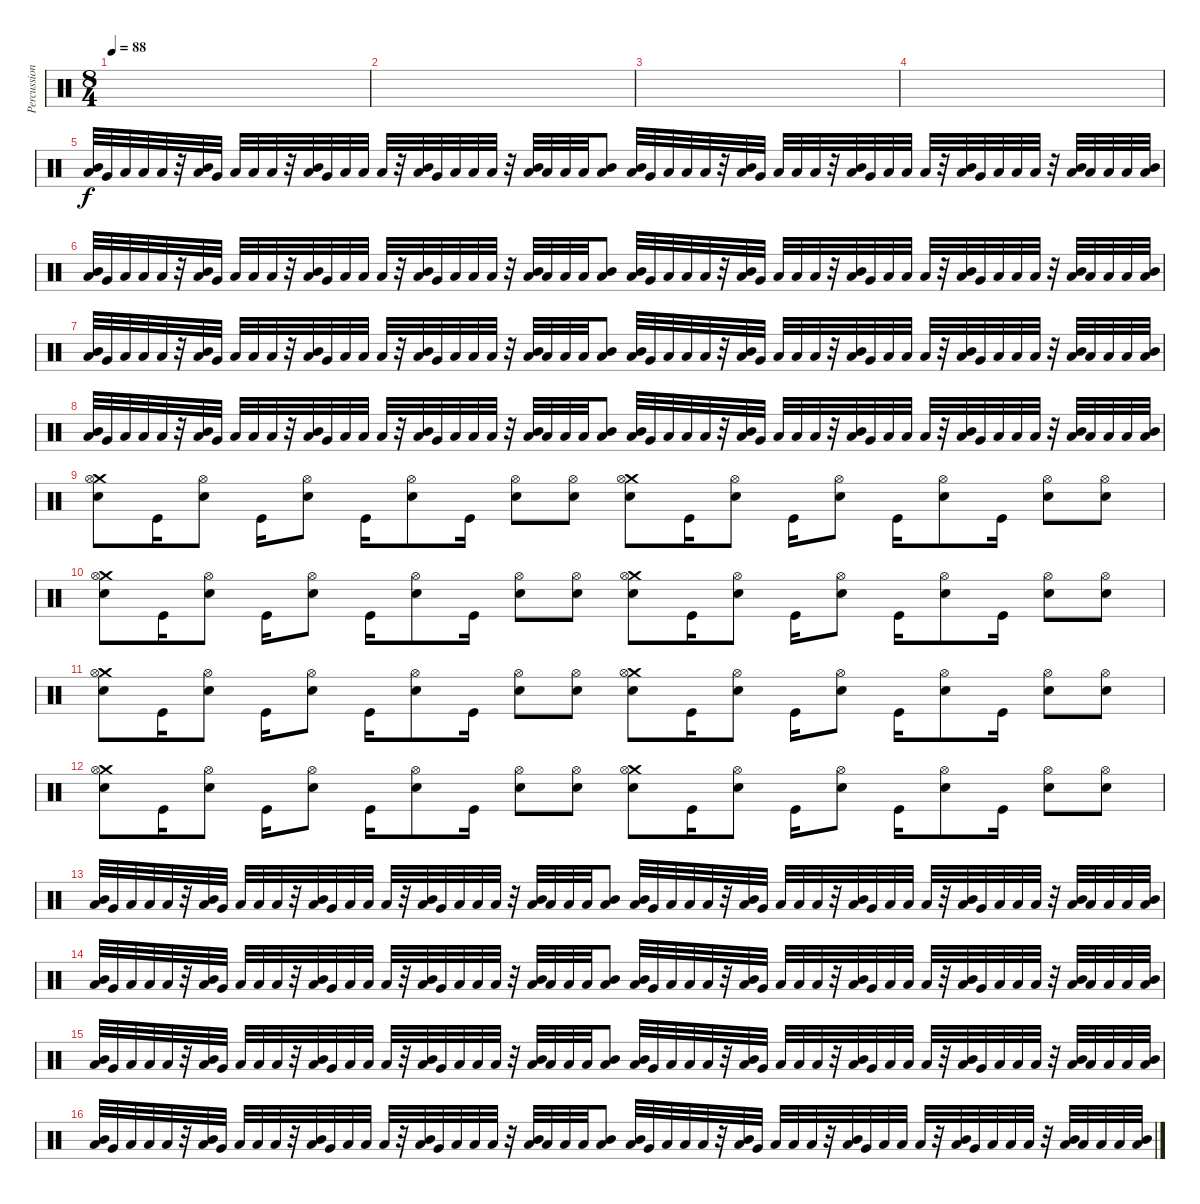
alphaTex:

\track ("Percussion" "Percussion") {instrument percussion}
\staff {score}
\articulation defaults
\ts (8 4)
\tempo 88
\clef neutral
\ks c
|
|
|
|
("Mid Tom (hit)" "Low Tom (hit)").32 "Very Low Tom (hit)".32 "Low Tom (hit)".32 "Low Tom (hit)".32 "Low Tom (hit)".32 r.32 ("Mid Tom (hit)" "Low Tom (hit)").32 "Very Low Tom (hit)".32 "Low Tom (hit)".32 "Low Tom (hit)".32 "Low Tom (hit)".32 r.32 ("Mid Tom (hit)" "Low Tom (hit)").32 "Very Low Tom (hit)".32 "Low Tom (hit)".32 "Low Tom (hit)".32 "Low Tom (hit)".32 r.32 ("Mid Tom (hit)" "Low Tom (hit)").32 "Very Low Tom (hit)".32 "Low Tom (hit)".32 "Low Tom (hit)".32 "Low Tom (hit)".32 r.32 ("Mid Tom (hit)" "Low Tom (hit)").32 "Low Tom (hit)".32 "Low Tom (hit)".32 "Low Tom (hit)".32 ("Mid Tom (hit)" "Low Tom (hit)").8 ("Mid Tom (hit)" "Low Tom (hit)").32 "Very Low Tom (hit)".32 "Low Tom (hit)".32 "Low Tom (hit)".32 "Low Tom (hit)".32 r.32 ("Mid Tom (hit)" "Low Tom (hit)").32 "Very Low Tom (hit)".32 "Low Tom (hit)".32 "Low Tom (hit)".32 "Low Tom (hit)".32 r.32 ("Mid Tom (hit)" "Low Tom (hit)").32 "Very Low Tom (hit)".32 "Low Tom (hit)".32 "Low Tom (hit)".32 "Low Tom (hit)".32 r.32 ("Mid Tom (hit)" "Low Tom (hit)").32 "Very Low Tom (hit)".32 "Low Tom (hit)".32 "Low Tom (hit)".32 "Low Tom (hit)".32 r.32 ("Mid Tom (hit)" "Low Tom (hit)").32 "Low Tom (hit)".32 "Low Tom (hit)".32 "Low Tom (hit)".32 ("Mid Tom (hit)" "Low Tom (hit)").32 |
("Mid Tom (hit)" "Low Tom (hit)").32 "Very Low Tom (hit)".32 "Low Tom (hit)".32 "Low Tom (hit)".32 "Low Tom (hit)".32 r.32 ("Mid Tom (hit)" "Low Tom (hit)").32 "Very Low Tom (hit)".32 "Low Tom (hit)".32 "Low Tom (hit)".32 "Low Tom (hit)".32 r.32 ("Mid Tom (hit)" "Low Tom (hit)").32 "Very Low Tom (hit)".32 "Low Tom (hit)".32 "Low Tom (hit)".32 "Low Tom (hit)".32 r.32 ("Mid Tom (hit)" "Low Tom (hit)").32 "Very Low Tom (hit)".32 "Low Tom (hit)".32 "Low Tom (hit)".32 "Low Tom (hit)".32 r.32 ("Mid Tom (hit)" "Low Tom (hit)").32 "Low Tom (hit)".32 "Low Tom (hit)".32 "Low Tom (hit)".32 ("Mid Tom (hit)" "Low Tom (hit)").8 ("Mid Tom (hit)" "Low Tom (hit)").32 "Very Low Tom (hit)".32 "Low Tom (hit)".32 "Low Tom (hit)".32 "Low Tom (hit)".32 r.32 ("Mid Tom (hit)" "Low Tom (hit)").32 "Very Low Tom (hit)".32 "Low Tom (hit)".32 "Low Tom (hit)".32 "Low Tom (hit)".32 r.32 ("Mid Tom (hit)" "Low Tom (hit)").32 "Very Low Tom (hit)".32 "Low Tom (hit)".32 "Low Tom (hit)".32 "Low Tom (hit)".32 r.32 ("Mid Tom (hit)" "Low Tom (hit)").32 "Very Low Tom (hit)".32 "Low Tom (hit)".32 "Low Tom (hit)".32 "Low Tom (hit)".32 r.32 ("Mid Tom (hit)" "Low Tom (hit)").32 "Low Tom (hit)".32 "Low Tom (hit)".32 "Low Tom (hit)".32 ("Mid Tom (hit)" "Low Tom (hit)").32 |
("Mid Tom (hit)" "Low Tom (hit)").32 "Very Low Tom (hit)".32 "Low Tom (hit)".32 "Low Tom (hit)".32 "Low Tom (hit)".32 r.32 ("Mid Tom (hit)" "Low Tom (hit)").32 "Very Low Tom (hit)".32 "Low Tom (hit)".32 "Low Tom (hit)".32 "Low Tom (hit)".32 r.32 ("Mid Tom (hit)" "Low Tom (hit)").32 "Very Low Tom (hit)".32 "Low Tom (hit)".32 "Low Tom (hit)".32 "Low Tom (hit)".32 r.32 ("Mid Tom (hit)" "Low Tom (hit)").32 "Very Low Tom (hit)".32 "Low Tom (hit)".32 "Low Tom (hit)".32 "Low Tom (hit)".32 r.32 ("Mid Tom (hit)" "Low Tom (hit)").32 "Low Tom (hit)".32 "Low Tom (hit)".32 "Low Tom (hit)".32 ("Mid Tom (hit)" "Low Tom (hit)").8 ("Mid Tom (hit)" "Low Tom (hit)").32 "Very Low Tom (hit)".32 "Low Tom (hit)".32 "Low Tom (hit)".32 "Low Tom (hit)".32 r.32 ("Mid Tom (hit)" "Low Tom (hit)").32 "Very Low Tom (hit)".32 "Low Tom (hit)".32 "Low Tom (hit)".32 "Low Tom (hit)".32 r.32 ("Mid Tom (hit)" "Low Tom (hit)").32 "Very Low Tom (hit)".32 "Low Tom (hit)".32 "Low Tom (hit)".32 "Low Tom (hit)".32 r.32 ("Mid Tom (hit)" "Low Tom (hit)").32 "Very Low Tom (hit)".32 "Low Tom (hit)".32 "Low Tom (hit)".32 "Low Tom (hit)".32 r.32 ("Mid Tom (hit)" "Low Tom (hit)").32 "Low Tom (hit)".32 "Low Tom (hit)".32 "Low Tom (hit)".32 ("Mid Tom (hit)" "Low Tom (hit)").32 |
("Mid Tom (hit)" "Low Tom (hit)").32 "Very Low Tom (hit)".32 "Low Tom (hit)".32 "Low Tom (hit)".32 "Low Tom (hit)".32 r.32 ("Mid Tom (hit)" "Low Tom (hit)").32 "Very Low Tom (hit)".32 "Low Tom (hit)".32 "Low Tom (hit)".32 "Low Tom (hit)".32 r.32 ("Mid Tom (hit)" "Low Tom (hit)").32 "Very Low Tom (hit)".32 "Low Tom (hit)".32 "Low Tom (hit)".32 "Low Tom (hit)".32 r.32 ("Mid Tom (hit)" "Low Tom (hit)").32 "Very Low Tom (hit)".32 "Low Tom (hit)".32 "Low Tom (hit)".32 "Low Tom (hit)".32 r.32 ("Mid Tom (hit)" "Low Tom (hit)").32 "Low Tom (hit)".32 "Low Tom (hit)".32 "Low Tom (hit)".32 ("Mid Tom (hit)" "Low Tom (hit)").8 ("Mid Tom (hit)" "Low Tom (hit)").32 "Very Low Tom (hit)".32 "Low Tom (hit)".32 "Low Tom (hit)".32 "Low Tom (hit)".32 r.32 ("Mid Tom (hit)" "Low Tom (hit)").32 "Very Low Tom (hit)".32 "Low Tom (hit)".32 "Low Tom (hit)".32 "Low Tom (hit)".32 r.32 ("Mid Tom (hit)" "Low Tom (hit)").32 "Very Low Tom (hit)".32 "Low Tom (hit)".32 "Low Tom (hit)".32 "Low Tom (hit)".32 r.32 ("Mid Tom (hit)" "Low Tom (hit)").32 "Very Low Tom (hit)".32 "Low Tom (hit)".32 "Low Tom (hit)".32 "Low Tom (hit)".32 r.32 ("Mid Tom (hit)" "Low Tom (hit)").32 "Low Tom (hit)".32 "Low Tom (hit)".32 "Low Tom (hit)".32 ("Mid Tom (hit)" "Low Tom (hit)").32 |
("Crash medium (hit)" "Hi-Hat (open)" "Snare (hit) 2").8 "Kick (hit)".16 ("Hi-Hat (open)" "Snare (hit) 2").8 "Kick (hit)".16 ("Hi-Hat (open)" "Snare (hit) 2").8 "Kick (hit)".16 ("Hi-Hat (open)" "Snare (hit) 2").8 "Kick (hit)".16 ("Hi-Hat (open)" "Snare (hit) 2").8 ("Hi-Hat (open)" "Snare (hit) 2").8 ("Crash medium (hit)" "Hi-Hat (open)" "Snare (hit) 2").8 "Kick (hit)".16 ("Hi-Hat (open)" "Snare (hit) 2").8 "Kick (hit)".16 ("Hi-Hat (open)" "Snare (hit) 2").8 "Kick (hit)".16 ("Hi-Hat (open)" "Snare (hit) 2").8 "Kick (hit)".16 ("Hi-Hat (open)" "Snare (hit) 2").8 ("Hi-Hat (open)" "Snare (hit) 2").8 |
("Crash medium (hit)" "Hi-Hat (open)" "Snare (hit) 2").8 "Kick (hit)".16 ("Hi-Hat (open)" "Snare (hit) 2").8 "Kick (hit)".16 ("Hi-Hat (open)" "Snare (hit) 2").8 "Kick (hit)".16 ("Hi-Hat (open)" "Snare (hit) 2").8 "Kick (hit)".16 ("Hi-Hat (open)" "Snare (hit) 2").8 ("Hi-Hat (open)" "Snare (hit) 2").8 ("Crash medium (hit)" "Hi-Hat (open)" "Snare (hit) 2").8 "Kick (hit)".16 ("Hi-Hat (open)" "Snare (hit) 2").8 "Kick (hit)".16 ("Hi-Hat (open)" "Snare (hit) 2").8 "Kick (hit)".16 ("Hi-Hat (open)" "Snare (hit) 2").8 "Kick (hit)".16 ("Hi-Hat (open)" "Snare (hit) 2").8 ("Hi-Hat (open)" "Snare (hit) 2").8 |
("Crash medium (hit)" "Hi-Hat (open)" "Snare (hit) 2").8 "Kick (hit)".16 ("Hi-Hat (open)" "Snare (hit) 2").8 "Kick (hit)".16 ("Hi-Hat (open)" "Snare (hit) 2").8 "Kick (hit)".16 ("Hi-Hat (open)" "Snare (hit) 2").8 "Kick (hit)".16 ("Hi-Hat (open)" "Snare (hit) 2").8 ("Hi-Hat (open)" "Snare (hit) 2").8 ("Crash medium (hit)" "Hi-Hat (open)" "Snare (hit) 2").8 "Kick (hit)".16 ("Hi-Hat (open)" "Snare (hit) 2").8 "Kick (hit)".16 ("Hi-Hat (open)" "Snare (hit) 2").8 "Kick (hit)".16 ("Hi-Hat (open)" "Snare (hit) 2").8 "Kick (hit)".16 ("Hi-Hat (open)" "Snare (hit) 2").8 ("Hi-Hat (open)" "Snare (hit) 2").8 |
("Crash medium (hit)" "Hi-Hat (open)" "Snare (hit) 2").8 "Kick (hit)".16 ("Hi-Hat (open)" "Snare (hit) 2").8 "Kick (hit)".16 ("Hi-Hat (open)" "Snare (hit) 2").8 "Kick (hit)".16 ("Hi-Hat (open)" "Snare (hit) 2").8 "Kick (hit)".16 ("Hi-Hat (open)" "Snare (hit) 2").8 ("Hi-Hat (open)" "Snare (hit) 2").8 ("Crash medium (hit)" "Hi-Hat (open)" "Snare (hit) 2").8 "Kick (hit)".16 ("Hi-Hat (open)" "Snare (hit) 2").8 "Kick (hit)".16 ("Hi-Hat (open)" "Snare (hit) 2").8 "Kick (hit)".16 ("Hi-Hat (open)" "Snare (hit) 2").8 "Kick (hit)".16 ("Hi-Hat (open)" "Snare (hit) 2").8 ("Hi-Hat (open)" "Snare (hit) 2").8 |
("Mid Tom (hit)" "Low Tom (hit)").32 "Very Low Tom (hit)".32 "Low Tom (hit)".32 "Low Tom (hit)".32 "Low Tom (hit)".32 r.32 ("Mid Tom (hit)" "Low Tom (hit)").32 "Very Low Tom (hit)".32 "Low Tom (hit)".32 "Low Tom (hit)".32 "Low Tom (hit)".32 r.32 ("Mid Tom (hit)" "Low Tom (hit)").32 "Very Low Tom (hit)".32 "Low Tom (hit)".32 "Low Tom (hit)".32 "Low Tom (hit)".32 r.32 ("Mid Tom (hit)" "Low Tom (hit)").32 "Very Low Tom (hit)".32 "Low Tom (hit)".32 "Low Tom (hit)".32 "Low Tom (hit)".32 r.32 ("Mid Tom (hit)" "Low Tom (hit)").32 "Low Tom (hit)".32 "Low Tom (hit)".32 "Low Tom (hit)".32 ("Mid Tom (hit)" "Low Tom (hit)").8 ("Mid Tom (hit)" "Low Tom (hit)").32 "Very Low Tom (hit)".32 "Low Tom (hit)".32 "Low Tom (hit)".32 "Low Tom (hit)".32 r.32 ("Mid Tom (hit)" "Low Tom (hit)").32 "Very Low Tom (hit)".32 "Low Tom (hit)".32 "Low Tom (hit)".32 "Low Tom (hit)".32 r.32 ("Mid Tom (hit)" "Low Tom (hit)").32 "Very Low Tom (hit)".32 "Low Tom (hit)".32 "Low Tom (hit)".32 "Low Tom (hit)".32 r.32 ("Mid Tom (hit)" "Low Tom (hit)").32 "Very Low Tom (hit)".32 "Low Tom (hit)".32 "Low Tom (hit)".32 "Low Tom (hit)".32 r.32 ("Mid Tom (hit)" "Low Tom (hit)").32 "Low Tom (hit)".32 "Low Tom (hit)".32 "Low Tom (hit)".32 ("Mid Tom (hit)" "Low Tom (hit)").32 |
("Mid Tom (hit)" "Low Tom (hit)").32 "Very Low Tom (hit)".32 "Low Tom (hit)".32 "Low Tom (hit)".32 "Low Tom (hit)".32 r.32 ("Mid Tom (hit)" "Low Tom (hit)").32 "Very Low Tom (hit)".32 "Low Tom (hit)".32 "Low Tom (hit)".32 "Low Tom (hit)".32 r.32 ("Mid Tom (hit)" "Low Tom (hit)").32 "Very Low Tom (hit)".32 "Low Tom (hit)".32 "Low Tom (hit)".32 "Low Tom (hit)".32 r.32 ("Mid Tom (hit)" "Low Tom (hit)").32 "Very Low Tom (hit)".32 "Low Tom (hit)".32 "Low Tom (hit)".32 "Low Tom (hit)".32 r.32 ("Mid Tom (hit)" "Low Tom (hit)").32 "Low Tom (hit)".32 "Low Tom (hit)".32 "Low Tom (hit)".32 ("Mid Tom (hit)" "Low Tom (hit)").8 ("Mid Tom (hit)" "Low Tom (hit)").32 "Very Low Tom (hit)".32 "Low Tom (hit)".32 "Low Tom (hit)".32 "Low Tom (hit)".32 r.32 ("Mid Tom (hit)" "Low Tom (hit)").32 "Very Low Tom (hit)".32 "Low Tom (hit)".32 "Low Tom (hit)".32 "Low Tom (hit)".32 r.32 ("Mid Tom (hit)" "Low Tom (hit)").32 "Very Low Tom (hit)".32 "Low Tom (hit)".32 "Low Tom (hit)".32 "Low Tom (hit)".32 r.32 ("Mid Tom (hit)" "Low Tom (hit)").32 "Very Low Tom (hit)".32 "Low Tom (hit)".32 "Low Tom (hit)".32 "Low Tom (hit)".32 r.32 ("Mid Tom (hit)" "Low Tom (hit)").32 "Low Tom (hit)".32 "Low Tom (hit)".32 "Low Tom (hit)".32 ("Mid Tom (hit)" "Low Tom (hit)").32 |
("Mid Tom (hit)" "Low Tom (hit)").32 "Very Low Tom (hit)".32 "Low Tom (hit)".32 "Low Tom (hit)".32 "Low Tom (hit)".32 r.32 ("Mid Tom (hit)" "Low Tom (hit)").32 "Very Low Tom (hit)".32 "Low Tom (hit)".32 "Low Tom (hit)".32 "Low Tom (hit)".32 r.32 ("Mid Tom (hit)" "Low Tom (hit)").32 "Very Low Tom (hit)".32 "Low Tom (hit)".32 "Low Tom (hit)".32 "Low Tom (hit)".32 r.32 ("Mid Tom (hit)" "Low Tom (hit)").32 "Very Low Tom (hit)".32 "Low Tom (hit)".32 "Low Tom (hit)".32 "Low Tom (hit)".32 r.32 ("Mid Tom (hit)" "Low Tom (hit)").32 "Low Tom (hit)".32 "Low Tom (hit)".32 "Low Tom (hit)".32 ("Mid Tom (hit)" "Low Tom (hit)").8 ("Mid Tom (hit)" "Low Tom (hit)").32 "Very Low Tom (hit)".32 "Low Tom (hit)".32 "Low Tom (hit)".32 "Low Tom (hit)".32 r.32 ("Mid Tom (hit)" "Low Tom (hit)").32 "Very Low Tom (hit)".32 "Low Tom (hit)".32 "Low Tom (hit)".32 "Low Tom (hit)".32 r.32 ("Mid Tom (hit)" "Low Tom (hit)").32 "Very Low Tom (hit)".32 "Low Tom (hit)".32 "Low Tom (hit)".32 "Low Tom (hit)".32 r.32 ("Mid Tom (hit)" "Low Tom (hit)").32 "Very Low Tom (hit)".32 "Low Tom (hit)".32 "Low Tom (hit)".32 "Low Tom (hit)".32 r.32 ("Mid Tom (hit)" "Low Tom (hit)").32 "Low Tom (hit)".32 "Low Tom (hit)".32 "Low Tom (hit)".32 ("Mid Tom (hit)" "Low Tom (hit)").32 |
("Mid Tom (hit)" "Low Tom (hit)").32 "Very Low Tom (hit)".32 "Low Tom (hit)".32 "Low Tom (hit)".32 "Low Tom (hit)".32 r.32 ("Mid Tom (hit)" "Low Tom (hit)").32 "Very Low Tom (hit)".32 "Low Tom (hit)".32 "Low Tom (hit)".32 "Low Tom (hit)".32 r.32 ("Mid Tom (hit)" "Low Tom (hit)").32 "Very Low Tom (hit)".32 "Low Tom (hit)".32 "Low Tom (hit)".32 "Low Tom (hit)".32 r.32 ("Mid Tom (hit)" "Low Tom (hit)").32 "Very Low Tom (hit)".32 "Low Tom (hit)".32 "Low Tom (hit)".32 "Low Tom (hit)".32 r.32 ("Mid Tom (hit)" "Low Tom (hit)").32 "Low Tom (hit)".32 "Low Tom (hit)".32 "Low Tom (hit)".32 ("Mid Tom (hit)" "Low Tom (hit)").8 ("Mid Tom (hit)" "Low Tom (hit)").32 "Very Low Tom (hit)".32 "Low Tom (hit)".32 "Low Tom (hit)".32 "Low Tom (hit)".32 r.32 ("Mid Tom (hit)" "Low Tom (hit)").32 "Very Low Tom (hit)".32 "Low Tom (hit)".32 "Low Tom (hit)".32 "Low Tom (hit)".32 r.32 ("Mid Tom (hit)" "Low Tom (hit)").32 "Very Low Tom (hit)".32 "Low Tom (hit)".32 "Low Tom (hit)".32 "Low Tom (hit)".32 r.32 ("Mid Tom (hit)" "Low Tom (hit)").32 "Very Low Tom (hit)".32 "Low Tom (hit)".32 "Low Tom (hit)".32 "Low Tom (hit)".32 r.32 ("Mid Tom (hit)" "Low Tom (hit)").32 "Low Tom (hit)".32 "Low Tom (hit)".32 "Low Tom (hit)".32 ("Mid Tom (hit)" "Low Tom (hit)").32
